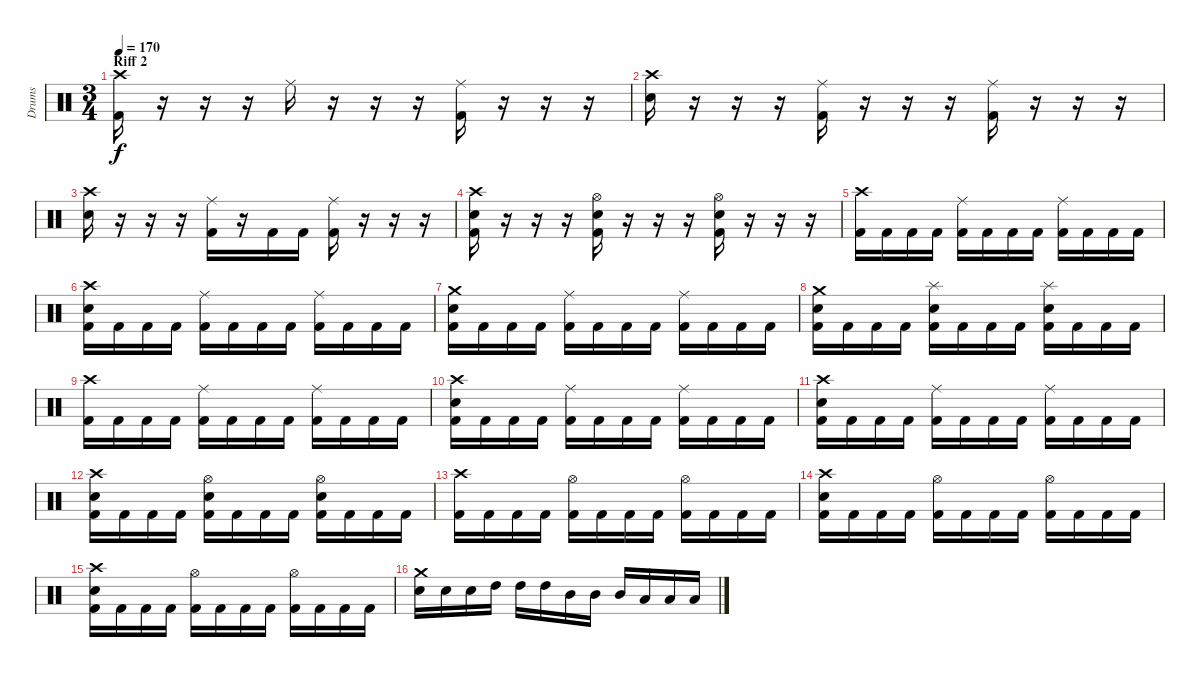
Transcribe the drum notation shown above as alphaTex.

\track ("Drums" "Drums") {instrument percussion}
\staff {score}
\articulation defaults
\ts (3 4)
\section ("" "Riff 2")
\tempo 170
\clef neutral
\ks c
("Crash high (hit)" "Kick (hit) 2").16{dy f} r.16 r.16 r.16 "Ride (middle)".16 r.16 r.16 r.16 ("Ride (middle)" "Kick (hit) 2").16 r.16 r.16 r.16 |
("Crash high (hit)" "Electric Snare (hit)").16 r.16 r.16 r.16 ("Ride (middle)" "Kick (hit) 2").16 r.16 r.16 r.16 ("Ride (middle)" "Kick (hit) 2").16 r.16 r.16 r.16 |
("Crash high (hit)" "Electric Snare (hit)").16 r.16 r.16 r.16 ("Ride (middle)" "Kick (hit) 2").16 r.16 "Kick (hit) 2".16 "Kick (hit) 2".16 ("Ride (middle)" "Kick (hit) 2").16 r.16 r.16 r.16 |
("Crash high (hit)" "Electric Snare (hit)" "Kick (hit) 2").16 r.16 r.16 r.16 ("Hi-Hat (open)" "Electric Snare (hit)" "Kick (hit) 2").16 r.16 r.16 r.16 ("Hi-Hat (open)" "Electric Snare (hit)" "Kick (hit) 2").16 r.16 r.16 r.16 |
("Crash high (hit)" "Kick (hit) 2").16 "Kick (hit) 2".16 "Kick (hit) 2".16 "Kick (hit) 2".16 ("Ride (middle)" "Kick (hit) 2").16 "Kick (hit) 2".16 "Kick (hit) 2".16 "Kick (hit) 2".16 ("Ride (middle)" "Kick (hit) 2").16 "Kick (hit) 2".16 "Kick (hit) 2".16 "Kick (hit) 2".16 |
("Crash high (hit)" "Electric Snare (hit)" "Kick (hit) 2").16 "Kick (hit) 2".16 "Kick (hit) 2".16 "Kick (hit) 2".16 ("Ride (middle)" "Kick (hit) 2").16 "Kick (hit) 2".16 "Kick (hit) 2".16 "Kick (hit) 2".16 ("Ride (middle)" "Kick (hit) 2").16 "Kick (hit) 2".16 "Kick (hit) 2".16 "Kick (hit) 2".16 |
("Crash medium (hit)" "Electric Snare (hit)" "Kick (hit) 2").16 "Kick (hit) 2".16 "Kick (hit) 2".16 "Kick (hit) 2".16 ("Ride (middle)" "Kick (hit) 2").16 "Kick (hit) 2".16 "Kick (hit) 2".16 "Kick (hit) 2".16 ("Ride (middle)" "Kick (hit) 2").16 "Kick (hit) 2".16 "Kick (hit) 2".16 "Kick (hit) 2".16 |
("Crash medium (hit)" "Electric Snare (hit)" "Kick (hit) 2").16 "Kick (hit) 2".16 "Kick (hit) 2".16 "Kick (hit) 2".16 ("Splash (hit)" "Electric Snare (hit)" "Kick (hit) 2").16 "Kick (hit) 2".16 "Kick (hit) 2".16 "Kick (hit) 2".16 ("Splash (hit)" "Electric Snare (hit)" "Kick (hit) 2").16 "Kick (hit) 2".16 "Kick (hit) 2".16 "Kick (hit) 2".16 |
("Crash high (hit)" "Kick (hit) 2").16 "Kick (hit) 2".16 "Kick (hit) 2".16 "Kick (hit) 2".16 ("Ride (middle)" "Kick (hit) 2").16 "Kick (hit) 2".16 "Kick (hit) 2".16 "Kick (hit) 2".16 ("Ride (middle)" "Kick (hit) 2").16 "Kick (hit) 2".16 "Kick (hit) 2".16 "Kick (hit) 2".16 |
("Crash high (hit)" "Electric Snare (hit)" "Kick (hit) 2").16 "Kick (hit) 2".16 "Kick (hit) 2".16 "Kick (hit) 2".16 ("Ride (middle)" "Kick (hit) 2").16 "Kick (hit) 2".16 "Kick (hit) 2".16 "Kick (hit) 2".16 ("Ride (middle)" "Kick (hit) 2").16 "Kick (hit) 2".16 "Kick (hit) 2".16 "Kick (hit) 2".16 |
("Crash high (hit)" "Electric Snare (hit)" "Kick (hit) 2").16 "Kick (hit) 2".16 "Kick (hit) 2".16 "Kick (hit) 2".16 ("Ride (middle)" "Kick (hit) 2").16 "Kick (hit) 2".16 "Kick (hit) 2".16 "Kick (hit) 2".16 ("Ride (middle)" "Kick (hit) 2").16 "Kick (hit) 2".16 "Kick (hit) 2".16 "Kick (hit) 2".16 |
("Crash high (hit)" "Electric Snare (hit)" "Kick (hit) 2").16 "Kick (hit) 2".16 "Kick (hit) 2".16 "Kick (hit) 2".16 ("Hi-Hat (open)" "Electric Snare (hit)" "Kick (hit) 2").16 "Kick (hit) 2".16 "Kick (hit) 2".16 "Kick (hit) 2".16 ("Hi-Hat (open)" "Electric Snare (hit)" "Kick (hit) 2").16 "Kick (hit) 2".16 "Kick (hit) 2".16 "Kick (hit) 2".16 |
("Crash high (hit)" "Kick (hit) 2").16 "Kick (hit) 2".16 "Kick (hit) 2".16 "Kick (hit) 2".16 ("Hi-Hat (open)" "Kick (hit) 2").16 "Kick (hit) 2".16 "Kick (hit) 2".16 "Kick (hit) 2".16 ("Hi-Hat (open)" "Kick (hit) 2").16 "Kick (hit) 2".16 "Kick (hit) 2".16 "Kick (hit) 2".16 |
("Crash high (hit)" "Electric Snare (hit)" "Kick (hit) 2").16 "Kick (hit) 2".16 "Kick (hit) 2".16 "Kick (hit) 2".16 ("Hi-Hat (open)" "Kick (hit) 2").16 "Kick (hit) 2".16 "Kick (hit) 2".16 "Kick (hit) 2".16 ("Hi-Hat (open)" "Kick (hit) 2").16 "Kick (hit) 2".16 "Kick (hit) 2".16 "Kick (hit) 2".16 |
("Crash high (hit)" "Electric Snare (hit)" "Kick (hit) 2").16 "Kick (hit) 2".16 "Kick (hit) 2".16 "Kick (hit) 2".16 ("Hi-Hat (open)" "Kick (hit) 2").16 "Kick (hit) 2".16 "Kick (hit) 2".16 "Kick (hit) 2".16 ("Hi-Hat (open)" "Kick (hit) 2").16 "Kick (hit) 2".16 "Kick (hit) 2".16 "Kick (hit) 2".16 |
("Crash medium (hit)" "Electric Snare (hit)").16 "Electric Snare (hit)".16 "Electric Snare (hit)".16 "High Tom (hit)".16 "High Tom (hit)".16 "High Tom (hit)".16 "Mid Tom (hit)".16 "Mid Tom (hit)".16 "Mid Tom (hit)".16 "Low Tom (hit)".16 "Low Tom (hit)".16 "Low Tom (hit)".16
